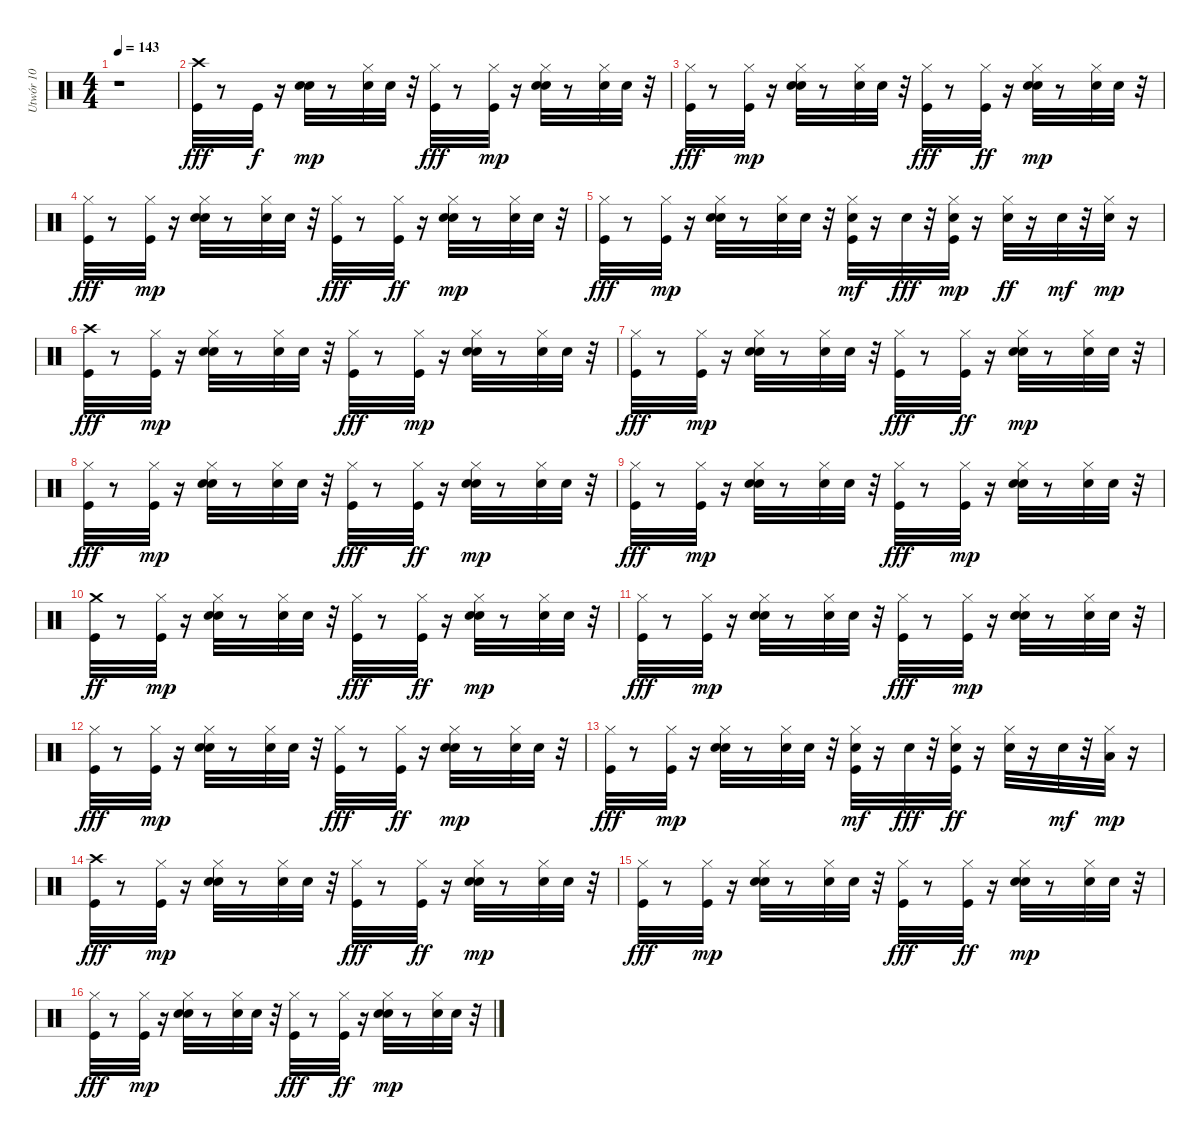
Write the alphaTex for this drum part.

\track ("Utwór 10" "Utwór 10") {instrument percussion}
\staff {score}
\articulation defaults
\ts (4 4)
\tempo 143
\clef neutral
\ks c
r.1{dy fff} |
("Kick (hit)" "Crash high (hit)").32 r.8 "Kick (hit)".32{dy f} r.16 ("Snare (hit) 2" "Hand Clap (hit)").32{dy mp} r.8 ("Hi-Hat (closed)" "Snare (hit) 2").32 "Hand Clap (hit)".32 r.32 ("Hi-Hat (closed)" "Kick (hit)").32{dy fff} r.8 ("Kick (hit)" "Hi-Hat (closed)").32{dy mp} r.16 ("Hi-Hat (closed)" "Snare (hit) 2" "Hand Clap (hit)").32 r.8 ("Snare (hit) 2" "Hi-Hat (closed)").32 "Hand Clap (hit)".32 r.32 |
("Hi-Hat (closed)" "Kick (hit)").32{dy fff} r.8 ("Kick (hit)" "Hi-Hat (closed)").32{dy mp} r.16 ("Snare (hit) 2" "Hi-Hat (closed)" "Hand Clap (hit)").32 r.8 ("Hi-Hat (closed)" "Snare (hit) 2").32 "Hand Clap (hit)".32 r.32 ("Kick (hit)" "Hi-Hat (closed)").32{dy fff} r.8 ("Hi-Hat (closed)" "Kick (hit)").32{dy ff} r.16 ("Hi-Hat (closed)" "Snare (hit) 2" "Hand Clap (hit)").32{dy mp} r.8 ("Snare (hit) 2" "Hi-Hat (closed)").32 "Hand Clap (hit)".32 r.32 |
("Kick (hit)" "Hi-Hat (closed)").32{dy fff} r.8 ("Kick (hit)" "Hi-Hat (closed)").32{dy mp} r.16 ("Snare (hit) 2" "Hi-Hat (closed)" "Hand Clap (hit)").32 r.8 ("Hi-Hat (closed)" "Snare (hit) 2").32 "Hand Clap (hit)".32 r.32 ("Kick (hit)" "Hi-Hat (closed)").32{dy fff} r.8 ("Hi-Hat (closed)" "Kick (hit)").32{dy ff} r.16 ("Snare (hit) 2" "Hi-Hat (closed)" "Hand Clap (hit)").32{dy mp} r.8 ("Snare (hit) 2" "Hi-Hat (closed)").32 "Hand Clap (hit)".32 r.32 |
("Hi-Hat (closed)" "Kick (hit)").32{dy fff} r.8 ("Hi-Hat (closed)" "Kick (hit)").32{dy mp} r.16 ("Snare (hit) 2" "Hi-Hat (closed)" "Hand Clap (hit)").32 r.8 ("Snare (hit) 2" "Hi-Hat (closed)").32 "Hand Clap (hit)".32 r.32 ("Hi-Hat (closed)" "Kick (hit)" "Hand Clap (hit)").32{dy mf} r.16 "Snare (hit) 2".32{dy fff} r.32 ("Kick (hit)" "Hi-Hat (closed)" "Snare (hit) 2").32{dy mp} r.16 ("Hi-Hat (closed)" "Snare (hit) 2").32{dy ff} r.16 "Snare (hit) 2".32{dy mf} r.32 ("Snare (hit) 2" "Hi-Hat (closed)").32{dy mp} r.16 |
("Crash high (hit)" "Kick (hit)").32{dy fff} r.8 ("Kick (hit)" "Hi-Hat (closed)").32{dy mp} r.16 ("Snare (hit) 2" "Hi-Hat (closed)" "Hand Clap (hit)").32 r.8 ("Snare (hit) 2" "Hi-Hat (closed)").32 "Hand Clap (hit)".32 r.32 ("Hi-Hat (closed)" "Kick (hit)").32{dy fff} r.8 ("Kick (hit)" "Hi-Hat (closed)").32{dy mp} r.16 ("Hi-Hat (closed)" "Snare (hit) 2" "Hand Clap (hit)").32 r.8 ("Snare (hit) 2" "Hi-Hat (closed)").32 "Hand Clap (hit)".32 r.32 |
("Hi-Hat (closed)" "Kick (hit)").32{dy fff} r.8 ("Hi-Hat (closed)" "Kick (hit)").32{dy mp} r.16 ("Snare (hit) 2" "Hi-Hat (closed)" "Hand Clap (hit)").32 r.8 ("Snare (hit) 2" "Hi-Hat (closed)").32 "Hand Clap (hit)".32 r.32 ("Hi-Hat (closed)" "Kick (hit)").32{dy fff} r.8 ("Hi-Hat (closed)" "Kick (hit)").32{dy ff} r.16 ("Snare (hit) 2" "Hi-Hat (closed)" "Hand Clap (hit)").32{dy mp} r.8 ("Snare (hit) 2" "Hi-Hat (closed)").32 "Hand Clap (hit)".32 r.32 |
("Kick (hit)" "Hi-Hat (closed)").32{dy fff} r.8 ("Kick (hit)" "Hi-Hat (closed)").32{dy mp} r.16 ("Snare (hit) 2" "Hi-Hat (closed)" "Hand Clap (hit)").32 r.8 ("Hi-Hat (closed)" "Snare (hit) 2").32 "Hand Clap (hit)".32 r.32 ("Kick (hit)" "Hi-Hat (closed)").32{dy fff} r.8 ("Hi-Hat (closed)" "Kick (hit)").32{dy ff} r.16 ("Snare (hit) 2" "Hi-Hat (closed)" "Hand Clap (hit)").32{dy mp} r.8 ("Hi-Hat (closed)" "Snare (hit) 2").32 "Hand Clap (hit)".32 r.32 |
("Hi-Hat (closed)" "Kick (hit)").32{dy fff} r.8 ("Hi-Hat (closed)" "Kick (hit)").32{dy mp} r.16 ("Snare (hit) 2" "Hi-Hat (closed)" "Hand Clap (hit)").32 r.8 ("Hi-Hat (closed)" "Snare (hit) 2").32 "Hand Clap (hit)".32 r.32 ("Kick (hit)" "Hi-Hat (closed)").32{dy fff} r.8 ("Kick (hit)" "Hi-Hat (closed)").32{dy mp} r.16 ("Hi-Hat (closed)" "Snare (hit) 2" "Hand Clap (hit)").32 r.8 ("Snare (hit) 2" "Hi-Hat (closed)").32 "Hand Clap (hit)".32 r.32 |
("Kick (hit)" "Crash medium (hit)").32{dy ff} r.8 ("Hi-Hat (closed)" "Kick (hit)").32{dy mp} r.16 ("Snare (hit) 2" "Hi-Hat (closed)" "Hand Clap (hit)").32 r.8 ("Snare (hit) 2" "Hi-Hat (closed)").32 "Hand Clap (hit)".32 r.32 ("Kick (hit)" "Hi-Hat (closed)").32{dy fff} r.8 ("Hi-Hat (closed)" "Kick (hit)").32{dy ff} r.16 ("Snare (hit) 2" "Hi-Hat (closed)" "Hand Clap (hit)").32{dy mp} r.8 ("Snare (hit) 2" "Hi-Hat (closed)").32 "Hand Clap (hit)".32 r.32 |
("Kick (hit)" "Hi-Hat (closed)").32{dy fff} r.8 ("Hi-Hat (closed)" "Kick (hit)").32{dy mp} r.16 ("Snare (hit) 2" "Hi-Hat (closed)" "Hand Clap (hit)").32 r.8 ("Snare (hit) 2" "Hi-Hat (closed)").32 "Hand Clap (hit)".32 r.32 ("Kick (hit)" "Hi-Hat (closed)").32{dy fff} r.8 ("Kick (hit)" "Hi-Hat (closed)").32{dy mp} r.16 ("Hi-Hat (closed)" "Snare (hit) 2" "Hand Clap (hit)").32 r.8 ("Snare (hit) 2" "Hi-Hat (closed)").32 "Hand Clap (hit)".32 r.32 |
("Kick (hit)" "Hi-Hat (closed)").32{dy fff} r.8 ("Kick (hit)" "Hi-Hat (closed)").32{dy mp} r.16 ("Hi-Hat (closed)" "Snare (hit) 2" "Hand Clap (hit)").32 r.8 ("Hi-Hat (closed)" "Snare (hit) 2").32 "Hand Clap (hit)".32 r.32 ("Hi-Hat (closed)" "Kick (hit)").32{dy fff} r.8 ("Hi-Hat (closed)" "Kick (hit)").32{dy ff} r.16 ("Snare (hit) 2" "Hi-Hat (closed)" "Hand Clap (hit)").32{dy mp} r.8 ("Snare (hit) 2" "Hi-Hat (closed)").32 "Hand Clap (hit)".32 r.32 |
("Hi-Hat (closed)" "Kick (hit)").32{dy fff} r.8 ("Kick (hit)" "Hi-Hat (closed)").32{dy mp} r.16 ("Snare (hit) 2" "Hi-Hat (closed)" "Hand Clap (hit)").32 r.8 ("Snare (hit) 2" "Hi-Hat (closed)").32 "Hand Clap (hit)".32 r.32 ("Kick (hit)" "Hi-Hat (closed)" "Hand Clap (hit)").32{dy mf} r.16 "Snare (hit) 2".32{dy fff} r.32 ("Hi-Hat (closed)" "Kick (hit)" "Snare (hit) 2").32{dy ff} r.16 ("Hi-Hat (closed)" "Snare (hit) 2").32 r.16 "Snare (hit) 2".32{dy mf} r.32 ("Low Floor Tom (hit)" "Hi-Hat (closed)").32{dy mp} r.16 |
("Crash high (hit)" "Kick (hit)").32{dy fff} r.8 ("Hi-Hat (closed)" "Kick (hit)").32{dy mp} r.16 ("Hi-Hat (closed)" "Snare (hit) 2" "Hand Clap (hit)").32 r.8 ("Snare (hit) 2" "Hi-Hat (closed)").32 "Hand Clap (hit)".32 r.32 ("Kick (hit)" "Hi-Hat (closed)").32{dy fff} r.8 ("Hi-Hat (closed)" "Kick (hit)").32{dy ff} r.16 ("Hi-Hat (closed)" "Snare (hit) 2" "Hand Clap (hit)").32{dy mp} r.8 ("Snare (hit) 2" "Hi-Hat (closed)").32 "Hand Clap (hit)".32 r.32 |
("Hi-Hat (closed)" "Kick (hit)").32{dy fff} r.8 ("Hi-Hat (closed)" "Kick (hit)").32{dy mp} r.16 ("Snare (hit) 2" "Hi-Hat (closed)" "Hand Clap (hit)").32 r.8 ("Snare (hit) 2" "Hi-Hat (closed)").32 "Hand Clap (hit)".32 r.32 ("Kick (hit)" "Hi-Hat (closed)").32{dy fff} r.8 ("Hi-Hat (closed)" "Kick (hit)").32{dy ff} r.16 ("Snare (hit) 2" "Hi-Hat (closed)" "Hand Clap (hit)").32{dy mp} r.8 ("Snare (hit) 2" "Hi-Hat (closed)").32 "Hand Clap (hit)".32 r.32 |
("Kick (hit)" "Hi-Hat (closed)").32{dy fff} r.8 ("Kick (hit)" "Hi-Hat (closed)").32{dy mp} r.16 ("Hi-Hat (closed)" "Snare (hit) 2" "Hand Clap (hit)").32 r.8 ("Snare (hit) 2" "Hi-Hat (closed)").32 "Hand Clap (hit)".32 r.32 ("Hi-Hat (closed)" "Kick (hit)").32{dy fff} r.8 ("Hi-Hat (closed)" "Kick (hit)").32{dy ff} r.16 ("Hi-Hat (closed)" "Snare (hit) 2" "Hand Clap (hit)").32{dy mp} r.8 ("Hi-Hat (closed)" "Snare (hit) 2").32 "Hand Clap (hit)".32 r.32
